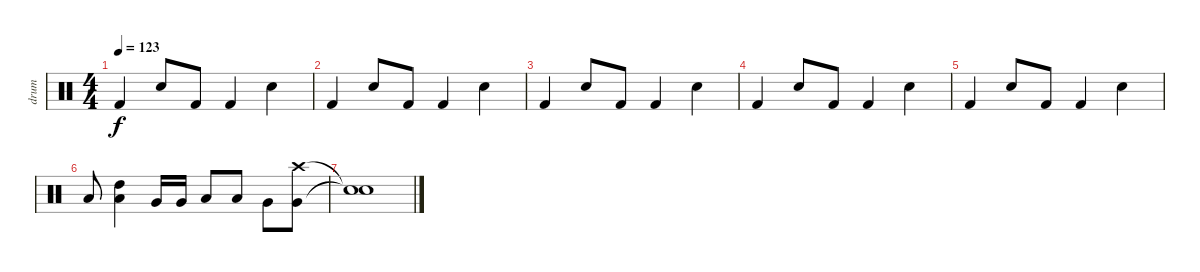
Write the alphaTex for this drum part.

\track ("drum" "drum") {instrument percussion}
\staff {score}
\articulation defaults
\ts (4 4)
\tempo 123
\clef neutral
\ks c "Kick (hit) 2".4{dy f} "Snare (hit) 2".8 "Kick (hit) 2".8 "Kick (hit) 2".4 "Snare (hit) 2".4
|
"Kick (hit) 2".4 "Snare (hit) 2".8 "Kick (hit) 2".8 "Kick (hit) 2".4 "Snare (hit) 2".4 |
"Kick (hit) 2".4 "Snare (hit) 2".8 "Kick (hit) 2".8 "Kick (hit) 2".4 "Snare (hit) 2".4 |
"Kick (hit) 2".4 "Snare (hit) 2".8 "Kick (hit) 2".8 "Kick (hit) 2".4 "Snare (hit) 2".4 |
"Kick (hit) 2".4 "Snare (hit) 2".8 "Kick (hit) 2".8 "Kick (hit) 2".4 "Snare (hit) 2".4 |
"Low Tom (hit)".8 ("Low Tom (hit)" "High Tom (hit)").4 "Very Low Tom (hit)".16 "Very Low Tom (hit)".16 "Low Tom (hit)".8 "Low Tom (hit)".8 "Very Low Tom (hit)".8 ("Very Low Tom (hit)" "Crash high (hit)").8 |
("Snare (hit)"{t} "Snare (hit)"{t}).1
